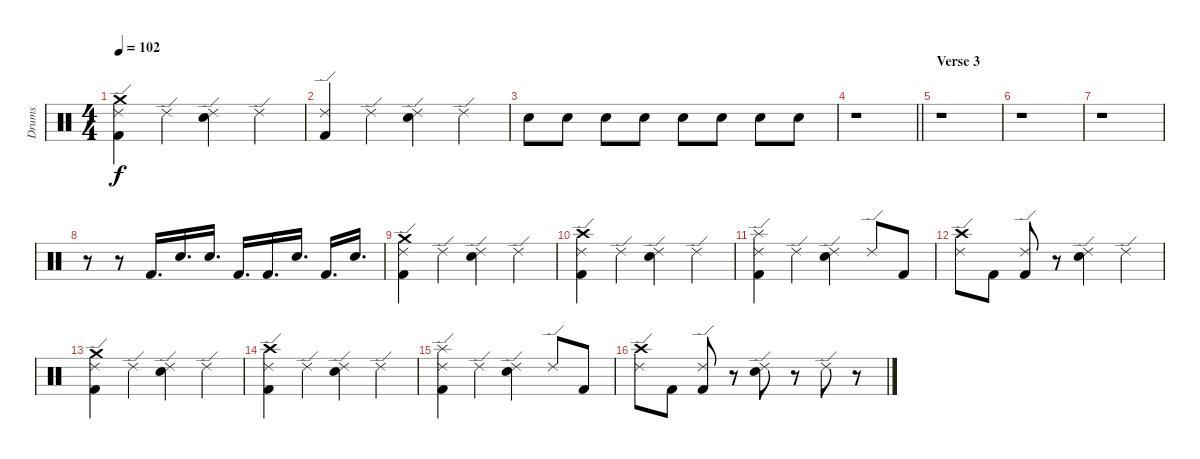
\track ("Drums" "Drums") {instrument percussion}
\staff {score}
\articulation defaults
\ts (4 4)
\tempo 102
\clef neutral
\ks c
("Crash medium (hit)" "Ride (edge) 2" "Kick (hit) 2").4{dy f} "Ride (edge) 2".4 ("Ride (edge) 2" "Electric Snare (hit)").4 "Ride (edge) 2".4 |
("Ride (edge) 2" "Kick (hit) 2").4 "Ride (edge) 2".4 ("Ride (edge) 2" "Electric Snare (hit)").4 "Ride (edge) 2".4 |
"Electric Snare (hit)".8 "Electric Snare (hit)".8 "Electric Snare (hit)".8 "Electric Snare (hit)".8 "Electric Snare (hit)".8 "Electric Snare (hit)".8 "Electric Snare (hit)".8 "Electric Snare (hit)".8 |
\barLineRight lightlight
r.1 |
\section ("" "Verse 3")
r.1 |
r.1 |
r.1 |
r.8 r.8 "Kick (hit) 2".16{d} "Electric Snare (hit)".16{d} "Electric Snare (hit)".16{d} "Kick (hit) 2".16{d} "Kick (hit) 2".16{d} "Electric Snare (hit)".16{d} "Kick (hit) 2".16{d} "Electric Snare (hit)".16{d} |
("Crash medium (hit)" "Ride (edge) 2" "Kick (hit) 2").4 "Ride (edge) 2".4 ("Ride (edge) 2" "Electric Snare (hit)").4 "Ride (edge) 2".4 |
("Crash high (hit)" "Ride (edge) 2" "Kick (hit) 2").4 "Ride (edge) 2".4 ("Ride (edge) 2" "Electric Snare (hit)").4 "Ride (edge) 2".4 |
("Splash (hit)" "Ride (edge) 2" "Kick (hit) 2").4 "Ride (edge) 2".4 ("Ride (edge) 2" "Electric Snare (hit)").4 "Ride (edge) 2".8 "Kick (hit) 2".8 |
("Crash high (hit)" "Ride (edge) 2").8 "Kick (hit) 2".8 ("Ride (edge) 2" "Kick (hit) 2").8 r.8 ("Ride (edge) 2" "Electric Snare (hit)").4 "Ride (edge) 2".4 |
("Crash medium (hit)" "Ride (edge) 2" "Kick (hit) 2").4 "Ride (edge) 2".4 ("Ride (edge) 2" "Electric Snare (hit)").4 "Ride (edge) 2".4 |
("Crash high (hit)" "Ride (edge) 2" "Kick (hit) 2").4 "Ride (edge) 2".4 ("Ride (edge) 2" "Electric Snare (hit)").4 "Ride (edge) 2".4 |
("Splash (hit)" "Ride (edge) 2" "Kick (hit) 2").4 "Ride (edge) 2".4 ("Ride (edge) 2" "Electric Snare (hit)").4 "Ride (edge) 2".8 "Kick (hit) 2".8 |
("Crash high (hit)" "Ride (edge) 2").8 "Kick (hit) 2".8 ("Ride (edge) 2" "Kick (hit) 2").8 r.8 ("Ride (edge) 2" "Electric Snare (hit)").8 r.8 "Ride (edge) 2".8 r.8
